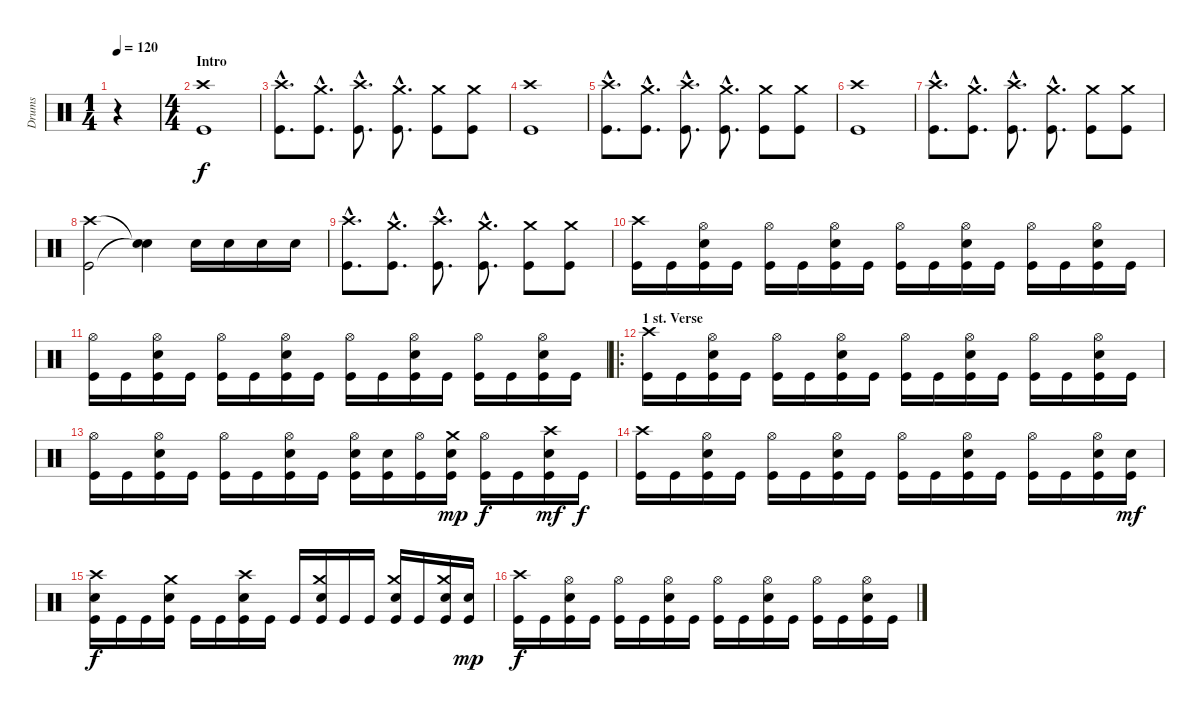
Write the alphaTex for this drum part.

\track ("Drums" "Drums") {instrument percussion}
\staff {score}
\articulation defaults
\ts (1 4)
\tempo 120
\clef neutral
\ks c
r.4{dy f} |
\ts (4 4)
\section ("" "Intro")
("Crash high (hit)" "Kick (hit)").1 |
("Crash high (hit)"{hac} "Kick (hit)"{hac}).8{d} ("Crash medium (hit)"{hac} "Kick (hit)"{hac}).8{d} ("Crash high (hit)"{hac} "Kick (hit)"{hac}).8{d} ("Crash medium (hit)"{hac} "Kick (hit)"{hac}).8{d} ("Crash medium (hit)" "Kick (hit)").8 ("Crash medium (hit)" "Kick (hit)").8 |
("Crash high (hit)" "Kick (hit)").1 |
("Crash high (hit)"{hac} "Kick (hit)"{hac}).8{d} ("Crash medium (hit)"{hac} "Kick (hit)"{hac}).8{d} ("Crash high (hit)"{hac} "Kick (hit)"{hac}).8{d} ("Crash medium (hit)"{hac} "Kick (hit)"{hac}).8{d} ("Crash medium (hit)" "Kick (hit)").8 ("Crash medium (hit)" "Kick (hit)").8 |
("Crash high (hit)" "Kick (hit)").1 |
("Crash high (hit)"{hac} "Kick (hit)"{hac}).8{d} ("Crash medium (hit)"{hac} "Kick (hit)"{hac}).8{d} ("Crash high (hit)"{hac} "Kick (hit)"{hac}).8{d} ("Crash medium (hit)"{hac} "Kick (hit)"{hac}).8{d} ("Crash medium (hit)" "Kick (hit)").8 ("Crash medium (hit)" "Kick (hit)").8 |
("Crash high (hit)" "Kick (hit)").2 ("Snare (hit)"{t} "Snare (hit)"{t}).4 "Electric Snare (hit)".16 "Electric Snare (hit)".16 "Electric Snare (hit)".16 "Electric Snare (hit)".16 |
("Crash high (hit)"{hac} "Kick (hit)"{hac}).8{d} ("Crash medium (hit)"{hac} "Kick (hit)"{hac}).8{d} ("Crash high (hit)"{hac} "Kick (hit)"{hac}).8{d} ("Crash medium (hit)"{hac} "Kick (hit)"{hac}).8{d} ("Crash medium (hit)" "Kick (hit)").8 ("Crash medium (hit)" "Kick (hit)").8 |
("Crash high (hit)" "Kick (hit)").16 "Kick (hit)".16 ("Hi-Hat (open)" "Electric Snare (hit)" "Kick (hit)").16 "Kick (hit)".16 ("Hi-Hat (open)" "Kick (hit)").16 "Kick (hit)".16 ("Hi-Hat (open)" "Electric Snare (hit)" "Kick (hit)").16 "Kick (hit)".16 ("Hi-Hat (open)" "Kick (hit)").16 "Kick (hit)".16 ("Hi-Hat (open)" "Electric Snare (hit)" "Kick (hit)").16 "Kick (hit)".16 ("Hi-Hat (open)" "Kick (hit)").16 "Kick (hit)".16 ("Hi-Hat (open)" "Electric Snare (hit)" "Kick (hit)").16 "Kick (hit)".16 |
("Hi-Hat (open)" "Kick (hit)").16 "Kick (hit)".16 ("Hi-Hat (open)" "Electric Snare (hit)" "Kick (hit)").16 "Kick (hit)".16 ("Hi-Hat (open)" "Kick (hit)").16 "Kick (hit)".16 ("Hi-Hat (open)" "Electric Snare (hit)" "Kick (hit)").16 "Kick (hit)".16 ("Hi-Hat (open)" "Kick (hit)").16 "Kick (hit)".16 ("Hi-Hat (open)" "Electric Snare (hit)" "Kick (hit)").16 "Kick (hit)".16 ("Hi-Hat (open)" "Kick (hit)").16 "Kick (hit)".16 ("Hi-Hat (open)" "Electric Snare (hit)" "Kick (hit)").16 "Kick (hit)".16 |
\ro
\section ("" "1 st. Verse")
("Crash high (hit)" "Kick (hit)").16 "Kick (hit)".16 ("Hi-Hat (open)" "Electric Snare (hit)" "Kick (hit)").16 "Kick (hit)".16 ("Hi-Hat (open)" "Kick (hit)").16 "Kick (hit)".16 ("Hi-Hat (open)" "Electric Snare (hit)" "Kick (hit)").16 "Kick (hit)".16 ("Hi-Hat (open)" "Kick (hit)").16 "Kick (hit)".16 ("Hi-Hat (open)" "Electric Snare (hit)" "Kick (hit)").16 "Kick (hit)".16 ("Hi-Hat (open)" "Kick (hit)").16 "Kick (hit)".16 ("Hi-Hat (open)" "Electric Snare (hit)" "Kick (hit)").16 "Kick (hit)".16 |
("Hi-Hat (open)" "Kick (hit)").16 "Kick (hit)".16 ("Hi-Hat (open)" "Electric Snare (hit)" "Kick (hit)").16 "Kick (hit)".16 ("Hi-Hat (open)" "Kick (hit)").16 "Kick (hit)".16 ("Hi-Hat (open)" "Electric Snare (hit)" "Kick (hit)").16 "Kick (hit)".16 ("Hi-Hat (open)" "Electric Snare (hit)" "Kick (hit)").16 ("Electric Snare (hit)" "Kick (hit)").16 ("Hi-Hat (open)" "Kick (hit)").16 ("Crash medium (hit)" "Electric Snare (hit)" "Kick (hit)").16{dy mp} ("Hi-Hat (open)" "Kick (hit)").16{dy f} "Kick (hit)".16 ("Crash high (hit)" "Electric Snare (hit)" "Kick (hit)").16{dy mf} "Kick (hit)".16{dy f} |
("Crash high (hit)" "Kick (hit)").16 "Kick (hit)".16 ("Hi-Hat (open)" "Electric Snare (hit)" "Kick (hit)").16 "Kick (hit)".16 ("Hi-Hat (open)" "Kick (hit)").16 "Kick (hit)".16 ("Hi-Hat (open)" "Electric Snare (hit)" "Kick (hit)").16 "Kick (hit)".16 ("Hi-Hat (open)" "Kick (hit)").16 "Kick (hit)".16 ("Hi-Hat (open)" "Electric Snare (hit)" "Kick (hit)").16 "Kick (hit)".16 ("Hi-Hat (open)" "Kick (hit)").16 "Kick (hit)".16 ("Hi-Hat (open)" "Electric Snare (hit)" "Kick (hit)").16 ("Electric Snare (hit)" "Kick (hit)").16{dy mf} |
("Crash high (hit)" "Electric Snare (hit)" "Kick (hit)").16{dy f} "Kick (hit)".16 "Kick (hit)".16 ("Crash medium (hit)" "Electric Snare (hit)" "Kick (hit)").16 "Kick (hit)".16 "Kick (hit)".16 ("Crash high (hit)" "Electric Snare (hit)" "Kick (hit)").16 "Kick (hit)".16 "Kick (hit)".16 ("Crash medium (hit)" "Electric Snare (hit)" "Kick (hit)").16 "Kick (hit)".16 "Kick (hit)".16 ("Crash medium (hit)" "Electric Snare (hit)" "Kick (hit)").16 "Kick (hit)".16 ("Crash medium (hit)" "Electric Snare (hit)" "Kick (hit)").16 ("Electric Snare (hit)" "Kick (hit)").16{dy mp} |
("Crash high (hit)" "Kick (hit)").16{dy f} "Kick (hit)".16 ("Hi-Hat (open)" "Electric Snare (hit)" "Kick (hit)").16 "Kick (hit)".16 ("Hi-Hat (open)" "Kick (hit)").16 "Kick (hit)".16 ("Hi-Hat (open)" "Electric Snare (hit)" "Kick (hit)").16 "Kick (hit)".16 ("Hi-Hat (open)" "Kick (hit)").16 "Kick (hit)".16 ("Hi-Hat (open)" "Electric Snare (hit)" "Kick (hit)").16 "Kick (hit)".16 ("Hi-Hat (open)" "Kick (hit)").16 "Kick (hit)".16 ("Hi-Hat (open)" "Electric Snare (hit)" "Kick (hit)").16 "Kick (hit)".16
